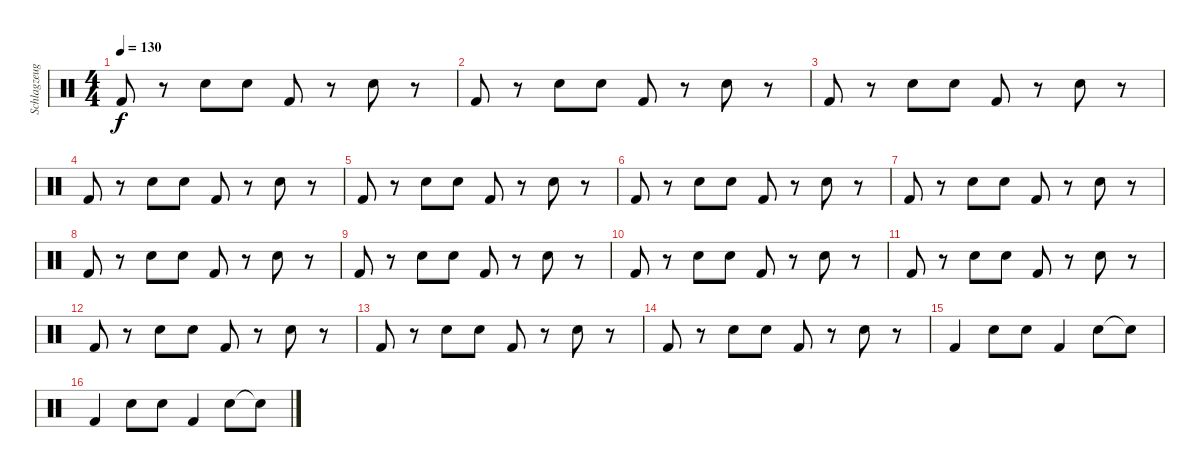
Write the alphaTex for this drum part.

\track ("Schlagzeug" "Schlagzeug") {instrument percussion}
\staff {score}
\articulation defaults
\ts (4 4)
\tempo 130
\clef neutral
\ks c "Kick (hit) 2".8{dy f}
r.8 "Snare (hit) 2".8 "Snare (hit) 2".8 "Kick (hit) 2".8 r.8 "Snare (hit) 2".8 r.8 |
"Kick (hit) 2".8 r.8 "Snare (hit) 2".8 "Snare (hit) 2".8 "Kick (hit) 2".8 r.8 "Snare (hit) 2".8 r.8 |
"Kick (hit) 2".8 r.8 "Snare (hit) 2".8 "Snare (hit) 2".8 "Kick (hit) 2".8 r.8 "Snare (hit) 2".8 r.8 |
"Kick (hit) 2".8 r.8 "Snare (hit) 2".8 "Snare (hit) 2".8 "Kick (hit) 2".8 r.8 "Snare (hit) 2".8 r.8 |
"Kick (hit) 2".8 r.8 "Snare (hit) 2".8 "Snare (hit) 2".8 "Kick (hit) 2".8 r.8 "Snare (hit) 2".8 r.8 |
"Kick (hit) 2".8 r.8 "Snare (hit) 2".8 "Snare (hit) 2".8 "Kick (hit) 2".8 r.8 "Snare (hit) 2".8 r.8 |
"Kick (hit) 2".8 r.8 "Snare (hit) 2".8 "Snare (hit) 2".8 "Kick (hit) 2".8 r.8 "Snare (hit) 2".8 r.8 |
"Kick (hit) 2".8 r.8 "Snare (hit) 2".8 "Snare (hit) 2".8 "Kick (hit) 2".8 r.8 "Snare (hit) 2".8 r.8 |
"Kick (hit) 2".8 r.8 "Snare (hit) 2".8 "Snare (hit) 2".8 "Kick (hit) 2".8 r.8 "Snare (hit) 2".8 r.8 |
"Kick (hit) 2".8 r.8 "Snare (hit) 2".8 "Snare (hit) 2".8 "Kick (hit) 2".8 r.8 "Snare (hit) 2".8 r.8 |
"Kick (hit) 2".8 r.8 "Snare (hit) 2".8 "Snare (hit) 2".8 "Kick (hit) 2".8 r.8 "Snare (hit) 2".8 r.8 |
"Kick (hit) 2".8 r.8 "Snare (hit) 2".8 "Snare (hit) 2".8 "Kick (hit) 2".8 r.8 "Snare (hit) 2".8 r.8 |
"Kick (hit) 2".8 r.8 "Snare (hit) 2".8 "Snare (hit) 2".8 "Kick (hit) 2".8 r.8 "Snare (hit) 2".8 r.8 |
"Kick (hit) 2".8 r.8 "Snare (hit) 2".8 "Snare (hit) 2".8 "Kick (hit) 2".8 r.8 "Snare (hit) 2".8 r.8 |
"Kick (hit) 2".4 "Snare (hit) 2".8 "Snare (hit) 2".8 "Kick (hit) 2".4 "Snare (hit) 2".8 "Snare (hit)"{t}.8 |
"Kick (hit) 2".4 "Snare (hit) 2".8 "Snare (hit) 2".8 "Kick (hit) 2".4 "Snare (hit) 2".8 "Snare (hit)"{t}.8
